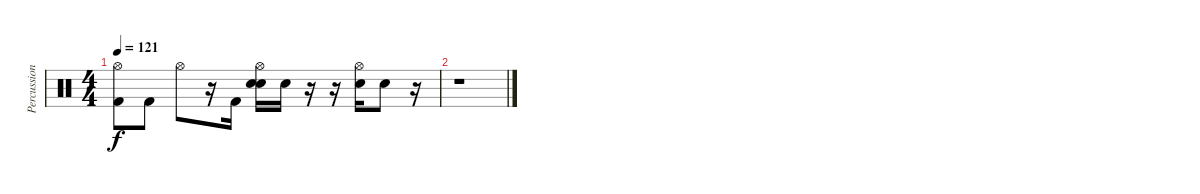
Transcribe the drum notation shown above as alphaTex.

\track ("Percussion- Mike" "Percussion") {instrument percussion}
\staff {score}
\articulation defaults
\ts (4 4)
\tempo 121
\clef neutral
\ks c
("Hi-Hat (open)" "Kick (hit) 2").8{dy f} "Kick (hit) 2".8 "Hi-Hat (open)".8 r.16 "Kick (hit) 2".16 ("Electric Snare (hit)" "Hi-Hat (open)" "Electric Snare (hit)").16 "Electric Snare (hit)".16 r.16 r.16 ("Electric Snare (hit)" "Hi-Hat (open)").16 "Electric Snare (hit)".8 r.16 |
r.1
